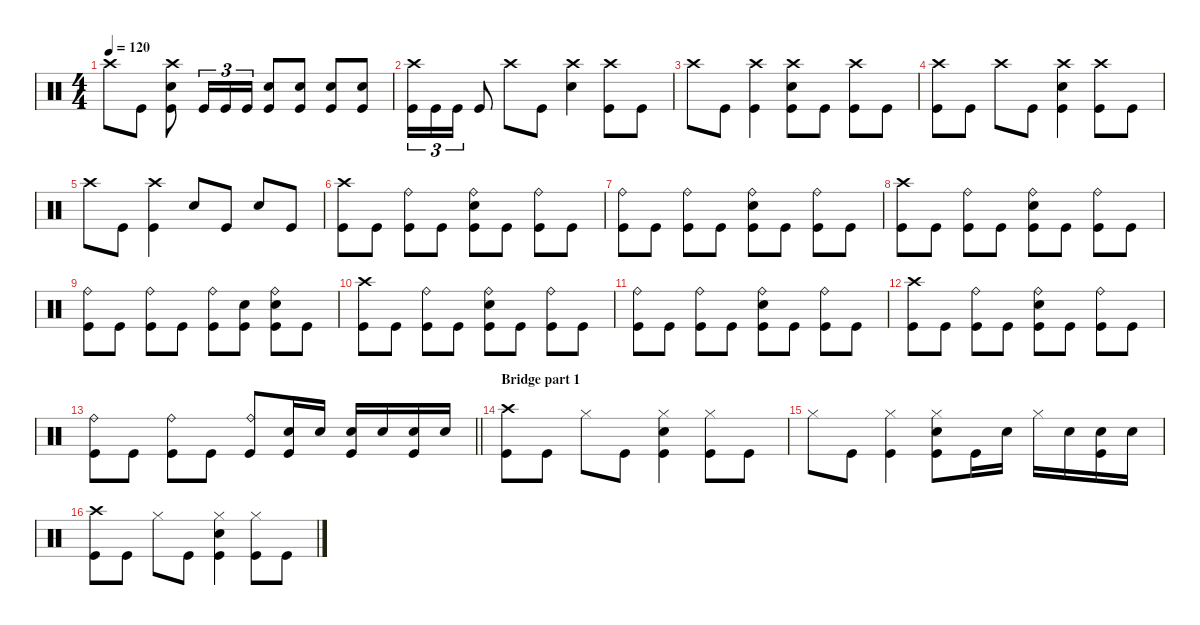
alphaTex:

\defaultSystemsLayout 4
\hideDynamics
\bracketExtendMode nobrackets
\singleTrackTrackNamePolicy hidden
\multiTrackTrackNamePolicy hidden
\firstSystemTrackNameMode fullname
\firstSystemTrackNameOrientation horizontal
\otherSystemsTrackNameOrientation horizontal
\track ("Drums" "drm.") {instrument percussion}
\staff {score}
\articulation defaults
\ts (4 4)
\tempo 120
\clef neutral
\ks c "Crash high (hit)".8{dy mf beam Down} "Kick (hit)".8{beam Down}
("Kick (hit)" "Snare (hit) 2" "Crash high (hit)").8{beam Down} "Kick (hit)".16{tu (3 2) beam Up} "Kick (hit)".16{tu (3 2) beam Up} "Kick (hit)".16{tu (3 2) beam Up} ("Kick (hit)" "Snare (hit) 2").8{beam Up} ("Kick (hit)" "Snare (hit) 2").8{beam Up} ("Kick (hit)" "Snare (hit) 2").8{beam Up} ("Kick (hit)" "Snare (hit) 2").8{beam Up} |
("Crash high (hit)" "Kick (hit)").16{tu (3 2) beam Down} "Kick (hit)".16{tu (3 2) beam Down} "Kick (hit)".16{tu (3 2) beam Down} "Kick (hit)".8{beam Up} "Crash high (hit)".8{beam Down} "Kick (hit)".8{beam Down} ("Snare (hit) 2" "Crash high (hit)").4{beam Down} ("Crash high (hit)" "Kick (hit)").8{beam Down} "Kick (hit)".8{beam Down} |
"Crash high (hit)".8{beam Down} "Kick (hit)".8{beam Down} ("Crash high (hit)" "Kick (hit)").4{beam Down} ("Snare (hit) 2" "Crash high (hit)" "Kick (hit)").8{beam Down} "Kick (hit)".8{beam Down} ("Kick (hit)" "Crash high (hit)").8{beam Down} "Kick (hit)".8{beam Down} |
("Kick (hit)" "Crash high (hit)").8{beam Down} "Kick (hit)".8{beam Down} "Crash high (hit)".8{beam Down} "Kick (hit)".8{beam Down} ("Kick (hit)" "Snare (hit) 2" "Crash high (hit)").4{beam Down} ("Kick (hit)" "Crash high (hit)").8{beam Down} "Kick (hit)".8{beam Down} |
"Crash high (hit)".8{beam Down} "Kick (hit)".8{beam Down} ("Kick (hit)" "Crash high (hit)").4{beam Down} "Snare (hit) 2".8{beam Up} "Kick (hit)".8{beam Up} "Snare (hit) 2".8{beam Up} "Kick (hit)".8{beam Up} |
("Crash high (hit)" "Kick (hit)").8{beam Down} "Kick (hit)".8{beam Down} ("Ride (bell)" "Kick (hit)").8{beam Down} "Kick (hit)".8{beam Down} ("Snare (hit) 2" "Ride (bell)" "Kick (hit)").8{beam Down} "Kick (hit)".8{beam Down} ("Ride (bell)" "Kick (hit)").8{beam Down} "Kick (hit)".8{beam Down} |
("Kick (hit)" "Ride (bell)").8{beam Down} "Kick (hit)".8{beam Down} ("Kick (hit)" "Ride (bell)").8{beam Down} "Kick (hit)".8{beam Down} ("Kick (hit)" "Snare (hit) 2" "Ride (bell)").8{beam Down} "Kick (hit)".8{beam Down} ("Kick (hit)" "Ride (bell)").8{beam Down} "Kick (hit)".8{beam Down} |
("Kick (hit)" "Crash high (hit)").8{beam Down} "Kick (hit)".8{beam Down} ("Kick (hit)" "Ride (bell)").8{beam Down} "Kick (hit)".8{beam Down} ("Kick (hit)" "Snare (hit) 2" "Ride (bell)").8{beam Down} "Kick (hit)".8{beam Down} ("Kick (hit)" "Ride (bell)").8{beam Down} "Kick (hit)".8{beam Down} |
("Ride (bell)" "Kick (hit)").8{beam Down} "Kick (hit)".8{beam Down} ("Ride (bell)" "Kick (hit)").8{beam Down} "Kick (hit)".8{beam Down} ("Ride (bell)" "Kick (hit)").8{beam Down} ("Snare (hit) 2" "Kick (hit)").8{beam Down} ("Snare (hit) 2" "Ride (bell)" "Kick (hit)").8{beam Down} "Kick (hit)".8{beam Down} |
("Kick (hit)" "Crash high (hit)").8{beam Down} "Kick (hit)".8{beam Down} ("Kick (hit)" "Ride (bell)").8{beam Down} "Kick (hit)".8{beam Down} ("Kick (hit)" "Snare (hit) 2" "Ride (bell)").8{beam Down} "Kick (hit)".8{beam Down} ("Kick (hit)" "Ride (bell)").8{beam Down} "Kick (hit)".8{beam Down} |
("Ride (bell)" "Kick (hit)").8{beam Down} "Kick (hit)".8{beam Down} ("Ride (bell)" "Kick (hit)").8{beam Down} "Kick (hit)".8{beam Down} ("Snare (hit) 2" "Ride (bell)" "Kick (hit)").8{beam Down} "Kick (hit)".8{beam Down} ("Ride (bell)" "Kick (hit)").8{beam Down} "Kick (hit)".8{beam Down} |
("Crash high (hit)" "Kick (hit)").8{beam Down} "Kick (hit)".8{beam Down} ("Ride (bell)" "Kick (hit)").8{beam Down} "Kick (hit)".8{beam Down} ("Snare (hit) 2" "Ride (bell)" "Kick (hit)").8{beam Down} "Kick (hit)".8{beam Down} ("Ride (bell)" "Kick (hit)").8{beam Down} "Kick (hit)".8{beam Down} |
\barLineRight lightlight
("Kick (hit)" "Ride (bell)").8{beam Down} "Kick (hit)".8{beam Down} ("Kick (hit)" "Ride (bell)").8{beam Down} "Kick (hit)".8{beam Down} ("Kick (hit)" "Ride (bell)").8{beam Up} ("Kick (hit)" "Snare (hit) 2").16{beam Up} "Snare (hit) 2".16{beam Up} ("Snare (hit) 2" "Kick (hit)").16{beam Up} "Snare (hit) 2".16{beam Up} ("Snare (hit) 2" "Kick (hit)").16{beam Up} "Snare (hit) 2".16{beam Up} |
\section ("" "Bridge part 1")
("Crash high (hit)" "Kick (hit)").8{beam Down} "Kick (hit)".8{beam Down} "Hi-Hat (closed)".8{beam Down} "Kick (hit)".8{beam Down} ("Snare (hit) 2" "Hi-Hat (closed)" "Kick (hit)").4{beam Down} ("Hi-Hat (closed)" "Kick (hit)").8{beam Down} "Kick (hit)".8{beam Down} |
"Hi-Hat (closed)".8{beam Down} "Kick (hit)".8{beam Down} ("Kick (hit)" "Hi-Hat (closed)").4{beam Down} ("Kick (hit)" "Snare (hit) 2" "Hi-Hat (closed)").8{beam Down} "Kick (hit)".16{beam Down} "Snare (hit) 2".16{beam Down} "Hi-Hat (closed)".16{beam Down} "Snare (hit) 2".16{beam Down} ("Kick (hit)" "Snare (hit) 2").16{beam Down} "Snare (hit) 2".16{beam Down} |
("Kick (hit)" "Crash high (hit)").8{beam Down} "Kick (hit)".8{beam Down} "Hi-Hat (closed)".8{beam Down} "Kick (hit)".8{beam Down} ("Kick (hit)" "Snare (hit) 2" "Hi-Hat (closed)").4{beam Down} ("Kick (hit)" "Hi-Hat (closed)").8{beam Down} "Kick (hit)".8{beam Down}
